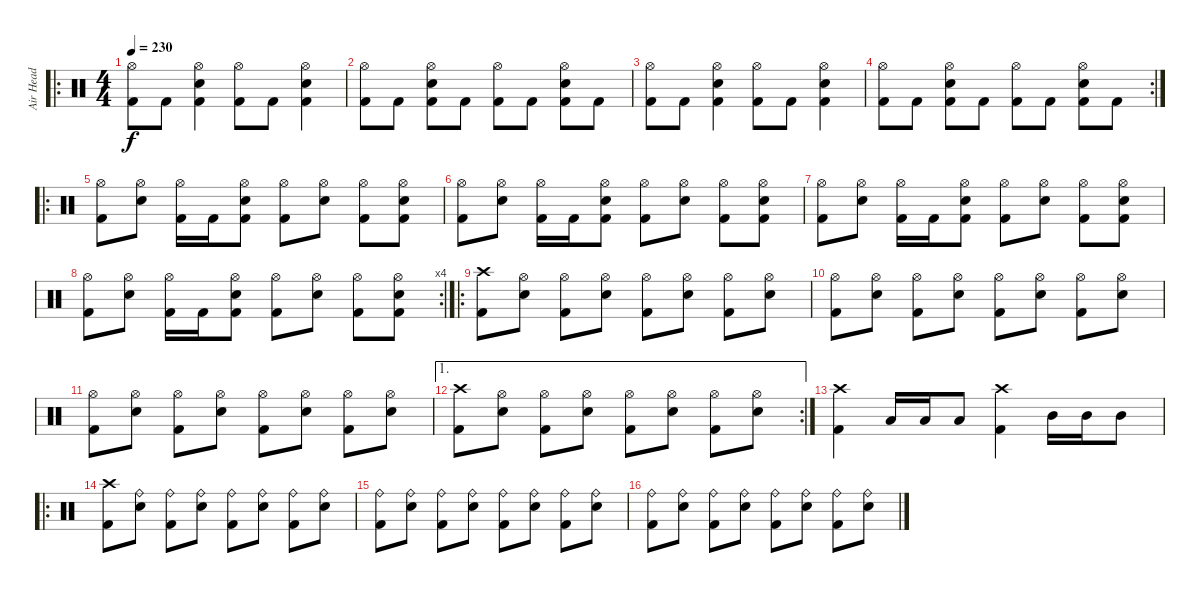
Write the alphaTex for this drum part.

\track ("Air Head" "Air Head") {instrument percussion}
\staff {score}
\articulation defaults
\ro
\ts (4 4)
\tempo 230
\clef neutral
\ks c
("Hi-Hat (open)" "Kick (hit) 2").8{dy f} "Kick (hit) 2".8 ("Hi-Hat (open)" "Snare (hit) 2" "Kick (hit) 2").4 ("Hi-Hat (open)" "Kick (hit) 2").8 "Kick (hit) 2".8 ("Hi-Hat (open)" "Snare (hit) 2" "Kick (hit) 2").4 |
("Hi-Hat (open)" "Kick (hit) 2").8 "Kick (hit) 2".8 ("Hi-Hat (open)" "Snare (hit) 2" "Kick (hit) 2").8 "Kick (hit) 2".8 ("Hi-Hat (open)" "Kick (hit) 2").8 "Kick (hit) 2".8 ("Hi-Hat (open)" "Snare (hit) 2" "Kick (hit) 2").8 "Kick (hit) 2".8 |
("Hi-Hat (open)" "Kick (hit) 2").8 "Kick (hit) 2".8 ("Hi-Hat (open)" "Snare (hit) 2" "Kick (hit) 2").4 ("Hi-Hat (open)" "Kick (hit) 2").8 "Kick (hit) 2".8 ("Hi-Hat (open)" "Snare (hit) 2" "Kick (hit) 2").4 |
\rc 2
("Hi-Hat (open)" "Kick (hit) 2").8 "Kick (hit) 2".8 ("Hi-Hat (open)" "Snare (hit) 2" "Kick (hit) 2").8 "Kick (hit) 2".8 ("Hi-Hat (open)" "Kick (hit) 2").8 "Kick (hit) 2".8 ("Hi-Hat (open)" "Snare (hit) 2" "Kick (hit) 2").8 "Kick (hit) 2".8 |
\ro
("Hi-Hat (open)" "Kick (hit) 2").8 ("Hi-Hat (open)" "Snare (hit) 2").8 ("Hi-Hat (open)" "Kick (hit) 2").16 "Kick (hit) 2".16 ("Hi-Hat (open)" "Snare (hit) 2" "Kick (hit) 2").8 ("Hi-Hat (open)" "Kick (hit) 2").8 ("Hi-Hat (open)" "Snare (hit) 2").8 ("Hi-Hat (open)" "Kick (hit) 2").8 ("Hi-Hat (open)" "Snare (hit) 2" "Kick (hit) 2").8 |
("Hi-Hat (open)" "Kick (hit) 2").8 ("Hi-Hat (open)" "Snare (hit) 2").8 ("Hi-Hat (open)" "Kick (hit) 2").16 "Kick (hit) 2".16 ("Hi-Hat (open)" "Snare (hit) 2" "Kick (hit) 2").8 ("Hi-Hat (open)" "Kick (hit) 2").8 ("Hi-Hat (open)" "Snare (hit) 2").8 ("Hi-Hat (open)" "Kick (hit) 2").8 ("Hi-Hat (open)" "Snare (hit) 2" "Kick (hit) 2").8 |
("Hi-Hat (open)" "Kick (hit) 2").8 ("Hi-Hat (open)" "Snare (hit) 2").8 ("Hi-Hat (open)" "Kick (hit) 2").16 "Kick (hit) 2".16 ("Hi-Hat (open)" "Snare (hit) 2" "Kick (hit) 2").8 ("Hi-Hat (open)" "Kick (hit) 2").8 ("Hi-Hat (open)" "Snare (hit) 2").8 ("Hi-Hat (open)" "Kick (hit) 2").8 ("Hi-Hat (open)" "Snare (hit) 2" "Kick (hit) 2").8 |
\rc 4
("Hi-Hat (open)" "Kick (hit) 2").8 ("Hi-Hat (open)" "Snare (hit) 2").8 ("Hi-Hat (open)" "Kick (hit) 2").16 "Kick (hit) 2".16 ("Hi-Hat (open)" "Snare (hit) 2" "Kick (hit) 2").8 ("Hi-Hat (open)" "Kick (hit) 2").8 ("Hi-Hat (open)" "Snare (hit) 2").8 ("Hi-Hat (open)" "Kick (hit) 2").8 ("Hi-Hat (open)" "Snare (hit) 2" "Kick (hit) 2").8 |
\ro
("Crash high (hit)" "Kick (hit) 2").8 ("Hi-Hat (open)" "Snare (hit) 2").8 ("Hi-Hat (open)" "Kick (hit) 2").8 ("Hi-Hat (open)" "Snare (hit) 2").8 ("Hi-Hat (open)" "Kick (hit) 2").8 ("Hi-Hat (open)" "Snare (hit) 2").8 ("Hi-Hat (open)" "Kick (hit) 2").8 ("Hi-Hat (open)" "Snare (hit) 2").8 |
("Hi-Hat (open)" "Kick (hit) 2").8 ("Hi-Hat (open)" "Snare (hit) 2").8 ("Hi-Hat (open)" "Kick (hit) 2").8 ("Hi-Hat (open)" "Snare (hit) 2").8 ("Hi-Hat (open)" "Kick (hit) 2").8 ("Hi-Hat (open)" "Snare (hit) 2").8 ("Hi-Hat (open)" "Kick (hit) 2").8 ("Hi-Hat (open)" "Snare (hit) 2").8 |
("Hi-Hat (open)" "Kick (hit) 2").8 ("Hi-Hat (open)" "Snare (hit) 2").8 ("Hi-Hat (open)" "Kick (hit) 2").8 ("Hi-Hat (open)" "Snare (hit) 2").8 ("Hi-Hat (open)" "Kick (hit) 2").8 ("Hi-Hat (open)" "Snare (hit) 2").8 ("Hi-Hat (open)" "Kick (hit) 2").8 ("Hi-Hat (open)" "Snare (hit) 2").8 |
\ae 1
\rc 2
("Crash high (hit)" "Kick (hit) 2").8 ("Hi-Hat (open)" "Snare (hit) 2").8 ("Hi-Hat (open)" "Kick (hit) 2").8 ("Hi-Hat (open)" "Snare (hit) 2").8 ("Hi-Hat (open)" "Kick (hit) 2").8 ("Hi-Hat (open)" "Snare (hit) 2").8 ("Hi-Hat (open)" "Kick (hit) 2").8 ("Hi-Hat (open)" "Snare (hit) 2").8 |
("Crash high (hit)" "Kick (hit) 2").4 "Low Tom (hit)".16 "Low Tom (hit)".16 "Low Tom (hit)".8 ("Crash high (hit)" "Kick (hit) 2").4 "Mid Tom (hit)".16 "Mid Tom (hit)".16 "Mid Tom (hit)".8 |
\ro
("Crash high (hit)" "Kick (hit) 2").8 ("Ride (bell)" "Snare (hit) 2").8 ("Ride (bell)" "Kick (hit) 2").8 ("Ride (bell)" "Snare (hit) 2").8 ("Ride (bell)" "Kick (hit) 2").8 ("Ride (bell)" "Snare (hit) 2").8 ("Ride (bell)" "Kick (hit) 2").8 ("Ride (bell)" "Snare (hit) 2").8 |
("Ride (bell)" "Kick (hit) 2").8 ("Ride (bell)" "Snare (hit) 2").8 ("Ride (bell)" "Kick (hit) 2").8 ("Ride (bell)" "Snare (hit) 2").8 ("Ride (bell)" "Kick (hit) 2").8 ("Ride (bell)" "Snare (hit) 2").8 ("Ride (bell)" "Kick (hit) 2").8 ("Ride (bell)" "Snare (hit) 2").8 |
("Ride (bell)" "Kick (hit) 2").8 ("Ride (bell)" "Snare (hit) 2").8 ("Ride (bell)" "Kick (hit) 2").8 ("Ride (bell)" "Snare (hit) 2").8 ("Ride (bell)" "Kick (hit) 2").8 ("Ride (bell)" "Snare (hit) 2").8 ("Ride (bell)" "Kick (hit) 2").8 ("Ride (bell)" "Snare (hit) 2").8
